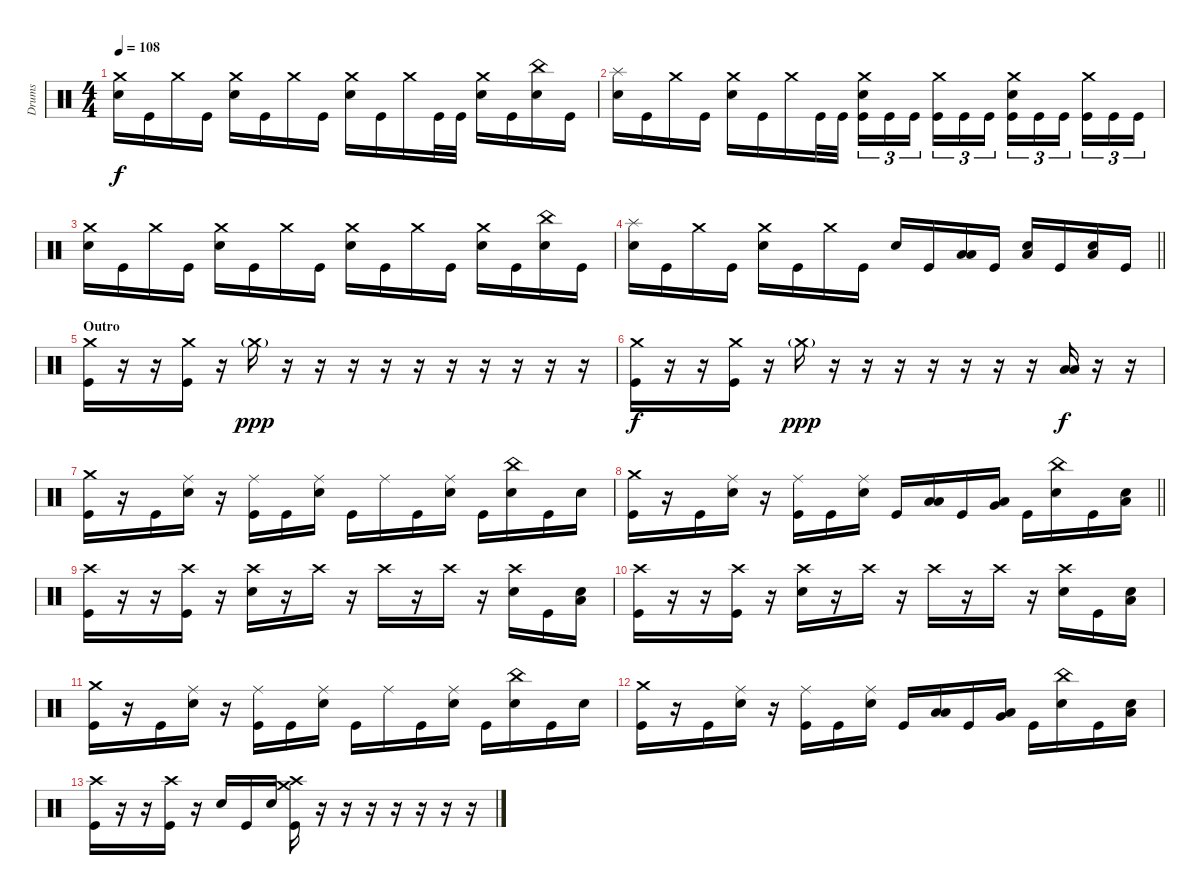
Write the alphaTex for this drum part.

\track ("Drums" "Drums") {instrument percussion}
\staff {score}
\articulation defaults
\ts (4 4)
\tempo 108
\clef neutral
\ks c
("Crash medium (hit)" "Snare (hit) 2").16{dy f} "Kick (hit)".16 "Crash medium (hit)".16 "Kick (hit)".16 ("Crash medium (hit)" "Snare (hit) 2").16 "Kick (hit)".16 "Crash medium (hit)".16 "Kick (hit)".16 ("Crash medium (hit)" "Snare (hit) 2").16 "Kick (hit)".16 "Crash medium (hit)".16 "Kick (hit)".32 "Kick (hit)".32 ("Crash medium (hit)" "Snare (hit) 2").16 "Kick (hit)".16 ("China (hit)" "Snare (hit) 2").16 "Kick (hit)".16 |
("Splash (hit)" "Snare (hit) 2").16 "Kick (hit)".16 "Crash medium (hit)".16 "Kick (hit)".16 ("Crash medium (hit)" "Snare (hit) 2").16 "Kick (hit)".16 "Crash medium (hit)".16 "Kick (hit)".32 "Kick (hit)".32 ("Crash medium (hit)" "Snare (hit) 2" "Kick (hit)").16{tu (3 2)} "Kick (hit)".16{tu (3 2)} "Kick (hit)".16{tu (3 2) beam splitsecondary} ("Crash medium (hit)" "Kick (hit)").16{tu (3 2)} "Kick (hit)".16{tu (3 2)} "Kick (hit)".16{tu (3 2)} ("Crash medium (hit)" "Snare (hit) 2" "Kick (hit)").16{tu (3 2)} "Kick (hit)".16{tu (3 2)} "Kick (hit)".16{tu (3 2) beam splitsecondary} ("Crash medium (hit)" "Kick (hit)").16{tu (3 2)} "Kick (hit)".16{tu (3 2)} "Kick (hit)".16{tu (3 2)} |
("Crash medium (hit)" "Snare (hit) 2").16 "Kick (hit)".16 "Crash medium (hit)".16 "Kick (hit)".16 ("Crash medium (hit)" "Snare (hit) 2").16 "Kick (hit)".16 "Crash medium (hit)".16 "Kick (hit)".16 ("Crash medium (hit)" "Snare (hit) 2").16 "Kick (hit)".16 "Crash medium (hit)".16 "Kick (hit)".16 ("Crash medium (hit)" "Snare (hit) 2").16 "Kick (hit)".16 ("China (hit)" "Snare (hit) 2").16 "Kick (hit)".16 |
\barLineRight lightlight
("Splash (hit)" "Snare (hit) 2").16 "Kick (hit)".16 "Crash medium (hit)".16 "Kick (hit)".16 ("Crash medium (hit)" "Snare (hit) 2").16 "Kick (hit)".16 "Crash medium (hit)".16 "Kick (hit)".16 "Snare (hit) 2".16 "Kick (hit)".16 ("Low Tom (hit)" "Low Floor Tom (hit)").16 "Kick (hit)".16 ("Snare (hit) 2" "Low Floor Tom (hit)").16 "Kick (hit)".16 ("Snare (hit) 2" "Low Floor Tom (hit)").16 "Kick (hit)".16 |
\section ("" "Outro")
("Crash medium (hit)" "Kick (hit)").16 r.16 r.16 ("Crash medium (hit)" "Kick (hit)").16 r.16 "Crash medium (hit)"{g}.16{dy ppp} r.16 r.16 r.16 r.16 r.16 r.16 r.16 r.16 r.16 r.16 |
("Crash medium (hit)" "Kick (hit)").16{dy f} r.16 r.16 ("Crash medium (hit)" "Kick (hit)").16 r.16 "Crash medium (hit)"{g}.16{dy ppp} r.16 r.16 r.16 r.16 r.16 r.16 r.16 ("Low Tom (hit)" "Low Floor Tom (hit)").16{dy f} r.16 r.16 |
("Crash medium (hit)" "Kick (hit)").16 r.16 "Kick (hit)".16 ("Ride (middle)" "Snare (hit) 2").16 r.16 ("Ride (middle)" "Kick (hit)").16 "Kick (hit)".16 ("Ride (middle)" "Snare (hit) 2").16 "Kick (hit)".16 "Ride (middle)".16 "Kick (hit)".16 ("Ride (middle)" "Snare (hit) 2").16 "Kick (hit)".16 ("China (hit)" "Snare (hit) 2").16 "Kick (hit)".16 "Snare (hit) 2".16 |
\barLineRight lightlight
("Crash medium (hit)" "Kick (hit)").16 r.16 "Kick (hit)".16 ("Ride (middle)" "Snare (hit) 2").16 r.16 ("Ride (middle)" "Kick (hit)").16 "Kick (hit)".16 ("Ride (middle)" "Snare (hit) 2").16 "Kick (hit)".16 ("Low Tom (hit)" "Low Floor Tom (hit)").16 "Kick (hit)".16 ("Very Low Tom (hit)" "Low Floor Tom (hit)").16 "Kick (hit)".16 ("China (hit)" "Snare (hit) 2").16 "Kick (hit)".16 ("Snare (hit) 2" "Low Floor Tom (hit)").16 |
("Crash high (hit)" "Kick (hit)").16 r.16 r.16 ("Crash high (hit)" "Kick (hit)").16 r.16 ("Crash high (hit)" "Snare (hit) 2").16 r.16 "Crash high (hit)".16 r.16 "Crash high (hit)".16 r.16 "Crash high (hit)".16 r.16 ("Crash high (hit)" "Snare (hit) 2").16 "Kick (hit)".16 ("Snare (hit) 2" "Low Floor Tom (hit)").16 |
("Crash high (hit)" "Kick (hit)").16 r.16 r.16 ("Crash high (hit)" "Kick (hit)").16 r.16 ("Crash high (hit)" "Snare (hit) 2").16 r.16 "Crash high (hit)".16 r.16 "Crash high (hit)".16 r.16 "Crash high (hit)".16 r.16 ("Crash high (hit)" "Snare (hit) 2").16 "Kick (hit)".16 ("Snare (hit) 2" "Low Floor Tom (hit)").16 |
("Crash medium (hit)" "Kick (hit)").16 r.16 "Kick (hit)".16 ("Ride (middle)" "Snare (hit) 2").16 r.16 ("Ride (middle)" "Kick (hit)").16 "Kick (hit)".16 ("Ride (middle)" "Snare (hit) 2").16 "Kick (hit)".16 "Ride (middle)".16 "Kick (hit)".16 ("Ride (middle)" "Snare (hit) 2").16 "Kick (hit)".16 ("China (hit)" "Snare (hit) 2").16 "Kick (hit)".16 "Snare (hit) 2".16 |
("Crash medium (hit)" "Kick (hit)").16 r.16 "Kick (hit)".16 ("Ride (middle)" "Snare (hit) 2").16 r.16 ("Ride (middle)" "Kick (hit)").16 "Kick (hit)".16 ("Ride (middle)" "Snare (hit) 2").16 "Kick (hit)".16 ("Low Tom (hit)" "Low Floor Tom (hit)").16 "Kick (hit)".16 ("Very Low Tom (hit)" "Low Floor Tom (hit)").16 "Kick (hit)".16 ("China (hit)" "Snare (hit) 2").16 "Kick (hit)".16 ("Snare (hit) 2" "Low Floor Tom (hit)").16 |
("Crash high (hit)" "Kick (hit)").16 r.16 r.16 ("Crash high (hit)" "Kick (hit)").16 r.16 "Snare (hit) 2".16 "Kick (hit)".16 "Snare (hit) 2".16 ("Crash medium (hit)" "Crash high (hit)" "Kick (hit)").16 r.16 r.16 r.16 r.16 r.16 r.16 r.16
